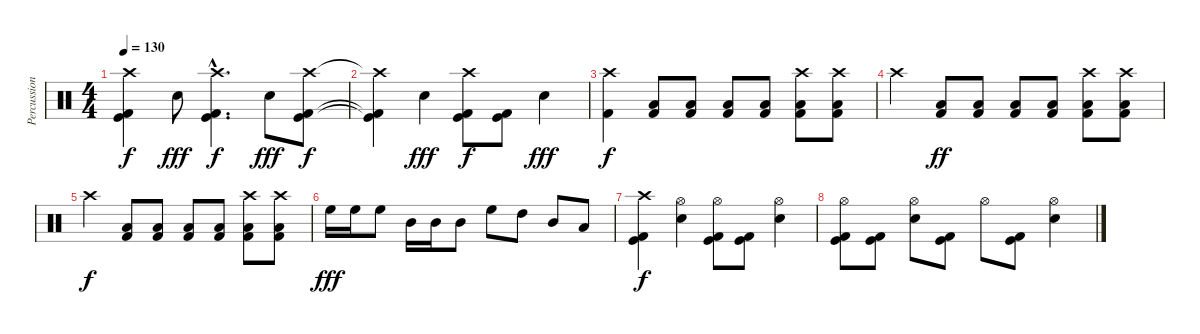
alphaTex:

\track ("Percussion" "Percussion") {instrument percussion}
\staff {score}
\articulation defaults
\ts (4 4)
\tempo 130
\clef neutral
\ks c
("Crash high (hit)" "Kick (hit)" "Kick (hit) 2").4{dy f} "Snare (hit) 2".8{dy fff} ("Crash high (hit)"{hac} "Kick (hit)"{hac} "Kick (hit) 2"{hac}).4{d dy f} "Snare (hit) 2".8{dy fff} ("Crash high (hit)" "Kick (hit)" "Kick (hit) 2").8{dy f} |
("Crash high (hit)"{t} "Kick (hit)"{t} "Kick (hit) 2"{t}).4 "Snare (hit) 2".4{dy fff} ("Crash high (hit)" "Kick (hit)" "Kick (hit) 2").8{dy f} ("Kick (hit)" "Kick (hit) 2").8 "Snare (hit) 2".4{dy fff} |
("Crash high (hit)" "Kick (hit) 2").4{dy f} ("Low Tom (hit)" "Kick (hit) 2").8 ("Low Tom (hit)" "Kick (hit) 2").8 ("Low Tom (hit)" "Kick (hit) 2").8 ("Low Tom (hit)" "Kick (hit) 2").8 ("Crash high (hit)" "Low Tom (hit)" "Kick (hit) 2").8 ("Crash high (hit)" "Low Tom (hit)" "Kick (hit) 2").8 |
"Crash high (hit)".4 ("Low Tom (hit)" "Kick (hit) 2").8{dy ff} ("Low Tom (hit)" "Kick (hit) 2").8 ("Low Tom (hit)" "Kick (hit) 2").8 ("Low Tom (hit)" "Kick (hit) 2").8 ("Crash high (hit)" "Low Tom (hit)" "Kick (hit) 2").8 ("Crash high (hit)" "Low Tom (hit)" "Kick (hit) 2").8 |
"Crash high (hit)".4{dy f} ("Low Tom (hit)" "Kick (hit) 2").8 ("Low Tom (hit)" "Kick (hit) 2").8 ("Low Tom (hit)" "Kick (hit) 2").8 ("Low Tom (hit)" "Kick (hit) 2").8 ("Crash high (hit)" "Low Tom (hit)" "Kick (hit) 2").8 ("Crash high (hit)" "Low Tom (hit)" "Kick (hit) 2").8 |
"High Floor Tom (hit)".16{dy fff} "High Floor Tom (hit)".16 "High Floor Tom (hit)".8 "Mid Tom (hit)".16 "Mid Tom (hit)".16 "Mid Tom (hit)".8 "High Floor Tom (hit)".8 "High Tom (hit)".8 "Mid Tom (hit)".8 "Low Tom (hit)".8 |
("Crash high (hit)" "Kick (hit)" "Kick (hit) 2").4{dy f} ("Hi-Hat (open)" "Snare (hit) 2").4 ("Hi-Hat (open)" "Kick (hit)" "Kick (hit) 2").8 ("Kick (hit)" "Kick (hit) 2").8 ("Hi-Hat (open)" "Snare (hit) 2").4 |
("Hi-Hat (open)" "Kick (hit)" "Kick (hit) 2").8 ("Kick (hit)" "Kick (hit) 2").8 ("Hi-Hat (open)" "Snare (hit) 2").8 ("Kick (hit)" "Kick (hit) 2").8 "Hi-Hat (open)".8 ("Kick (hit)" "Kick (hit) 2").8 ("Hi-Hat (open)" "Snare (hit) 2").4
